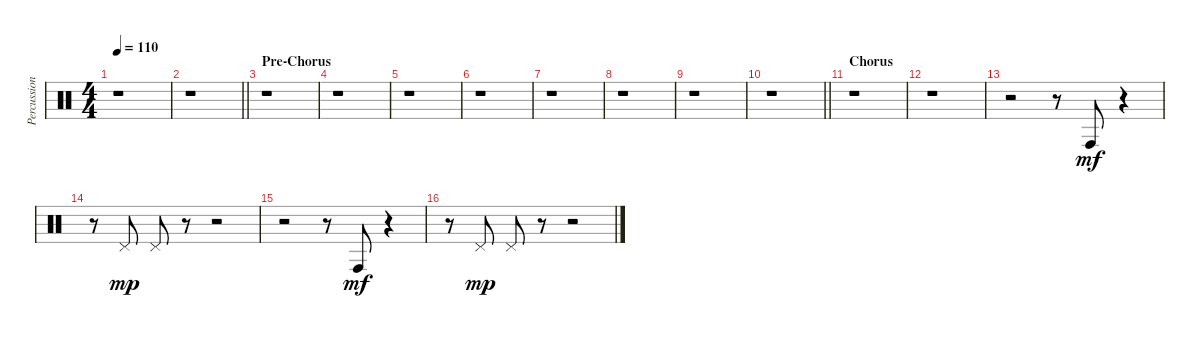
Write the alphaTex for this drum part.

\track ("Percussion" "Percussion") {instrument percussion}
\staff {score}
\articulation defaults
\ts (4 4)
\tempo 110
\clef neutral
\ks c
r.1{dy mf} |
\barLineRight lightlight
r.1 |
\section ("" "Pre-Chorus")
r.1 |
r.1 |
r.1 |
r.1 |
r.1 |
r.1 |
r.1 |
\barLineRight lightlight
r.1 |
\section ("" "Chorus")
r.1 |
r.1 |
r.2 r.8{balance 1} "Conga high (hit)".8 r.4 |
r.8{balance 15} "Pedal Hi-Hat (hit)".8{dy mp} "Pedal Hi-Hat (hit)".8 r.8 r.2 |
r.2 r.8{balance 1} "Conga high (hit)".8{dy mf} r.4 |
r.8{balance 15} "Pedal Hi-Hat (hit)".8{dy mp} "Pedal Hi-Hat (hit)".8 r.8 r.2
